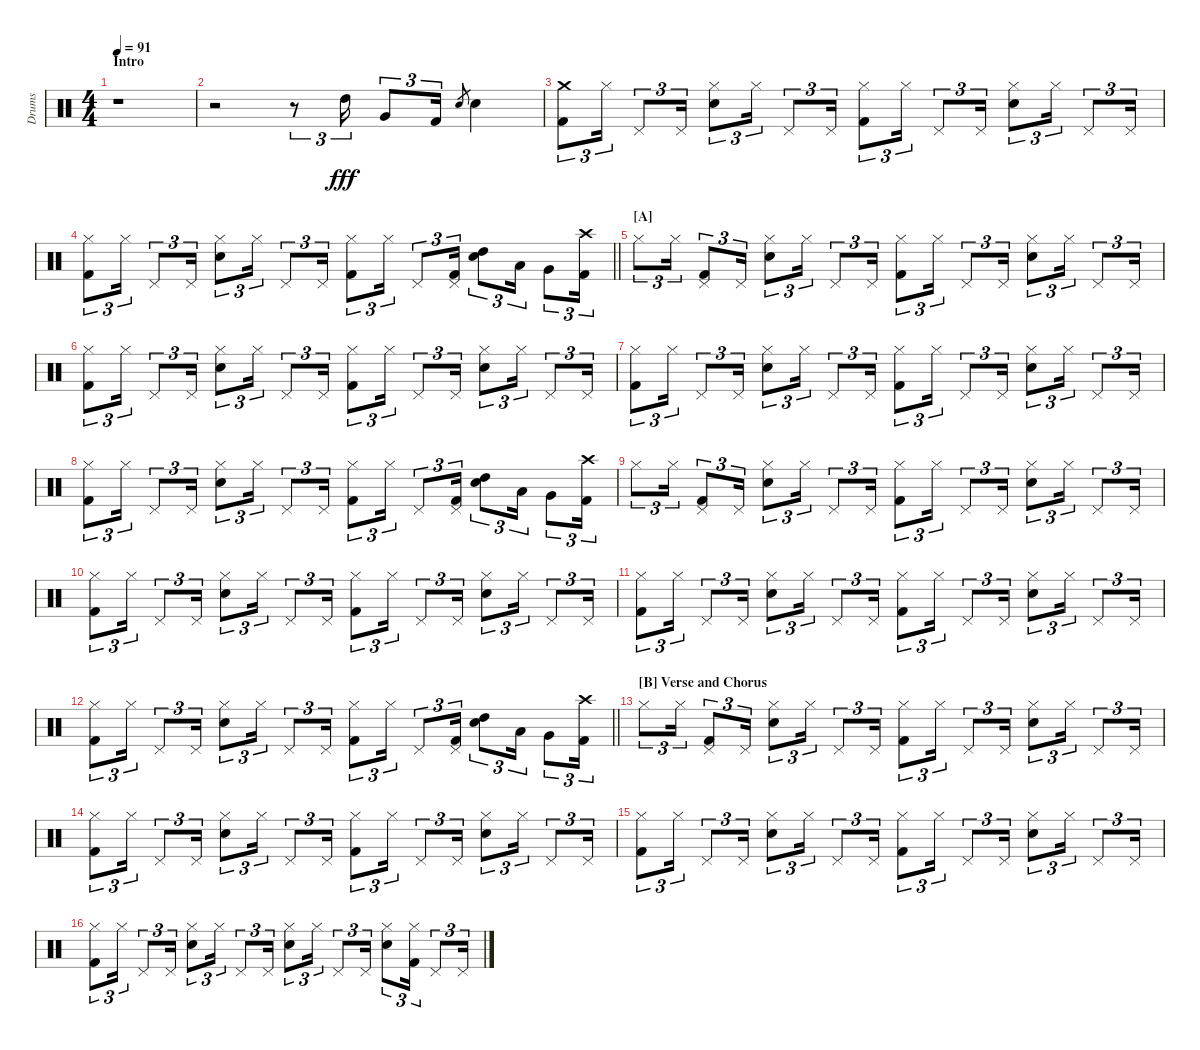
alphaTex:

\track ("Drums" "Drums") {instrument percussion}
\staff {score}
\articulation defaults
\ts (4 4)
\section ("" "Intro")
\tempo 91
\clef neutral
\ks c
r.1{dy fff} |
r.2 r.8{tu (3 2)} "High Tom (hit)".16{tu (3 2)} "Very Low Tom (hit)".8{tu (3 2)} "Kick (hit) 2".16{tu (3 2)} "Electric Snare (hit)".8{gr} "Electric Snare (hit)".4 |
("Crash medium (hit)" "Kick (hit) 2").8{tu (3 2)} "Hi-Hat (closed)".16{tu (3 2)} "Pedal Hi-Hat (hit)".8{tu (3 2)} "Pedal Hi-Hat (hit)".16{tu (3 2)} ("Snare (hit) 2" "Hi-Hat (closed)").8{tu (3 2)} "Hi-Hat (closed)".16{tu (3 2)} "Pedal Hi-Hat (hit)".8{tu (3 2)} "Pedal Hi-Hat (hit)".16{tu (3 2)} ("Kick (hit) 2" "Hi-Hat (closed)").8{tu (3 2)} "Hi-Hat (closed)".16{tu (3 2)} "Pedal Hi-Hat (hit)".8{tu (3 2)} "Pedal Hi-Hat (hit)".16{tu (3 2)} ("Snare (hit) 2" "Hi-Hat (closed)").8{tu (3 2)} "Hi-Hat (closed)".16{tu (3 2)} "Pedal Hi-Hat (hit)".8{tu (3 2)} "Pedal Hi-Hat (hit)".16{tu (3 2)} |
\barLineRight lightlight
("Hi-Hat (closed)" "Kick (hit) 2").8{tu (3 2)} "Hi-Hat (closed)".16{tu (3 2)} "Pedal Hi-Hat (hit)".8{tu (3 2)} "Pedal Hi-Hat (hit)".16{tu (3 2)} ("Snare (hit) 2" "Hi-Hat (closed)").8{tu (3 2)} "Hi-Hat (closed)".16{tu (3 2)} "Pedal Hi-Hat (hit)".8{tu (3 2)} "Pedal Hi-Hat (hit)".16{tu (3 2)} ("Kick (hit) 2" "Hi-Hat (closed)").8{tu (3 2)} "Hi-Hat (closed)".16{tu (3 2)} "Pedal Hi-Hat (hit)".8{tu (3 2)} ("Kick (hit) 2" "Pedal Hi-Hat (hit)").16{tu (3 2)} ("Snare (hit) 2" "High Tom (hit)").8{tu (3 2)} "Low Tom (hit)".16{tu (3 2)} "Very Low Tom (hit)".8{tu (3 2)} ("Crash high (hit)" "Kick (hit) 2").16{tu (3 2)} |
\section ("" "[A]")
"Hi-Hat (closed)".8{tu (3 2)} "Hi-Hat (closed)".16{tu (3 2)} ("Kick (hit) 2" "Pedal Hi-Hat (hit)").8{tu (3 2)} "Pedal Hi-Hat (hit)".16{tu (3 2)} ("Snare (hit) 2" "Hi-Hat (closed)").8{tu (3 2)} "Hi-Hat (closed)".16{tu (3 2)} "Pedal Hi-Hat (hit)".8{tu (3 2)} "Pedal Hi-Hat (hit)".16{tu (3 2)} ("Kick (hit) 2" "Hi-Hat (closed)").8{tu (3 2)} "Hi-Hat (closed)".16{tu (3 2)} "Pedal Hi-Hat (hit)".8{tu (3 2)} "Pedal Hi-Hat (hit)".16{tu (3 2)} ("Snare (hit) 2" "Hi-Hat (closed)").8{tu (3 2)} "Hi-Hat (closed)".16{tu (3 2)} "Pedal Hi-Hat (hit)".8{tu (3 2)} "Pedal Hi-Hat (hit)".16{tu (3 2)} |
("Hi-Hat (closed)" "Kick (hit) 2").8{tu (3 2)} "Hi-Hat (closed)".16{tu (3 2)} "Pedal Hi-Hat (hit)".8{tu (3 2)} "Pedal Hi-Hat (hit)".16{tu (3 2)} ("Snare (hit) 2" "Hi-Hat (closed)").8{tu (3 2)} "Hi-Hat (closed)".16{tu (3 2)} "Pedal Hi-Hat (hit)".8{tu (3 2)} "Pedal Hi-Hat (hit)".16{tu (3 2)} ("Kick (hit) 2" "Hi-Hat (closed)").8{tu (3 2)} "Hi-Hat (closed)".16{tu (3 2)} "Pedal Hi-Hat (hit)".8{tu (3 2)} "Pedal Hi-Hat (hit)".16{tu (3 2)} ("Snare (hit) 2" "Hi-Hat (closed)").8{tu (3 2)} "Hi-Hat (closed)".16{tu (3 2)} "Pedal Hi-Hat (hit)".8{tu (3 2)} "Pedal Hi-Hat (hit)".16{tu (3 2)} |
("Hi-Hat (closed)" "Kick (hit) 2").8{tu (3 2)} "Hi-Hat (closed)".16{tu (3 2)} "Pedal Hi-Hat (hit)".8{tu (3 2)} "Pedal Hi-Hat (hit)".16{tu (3 2)} ("Snare (hit) 2" "Hi-Hat (closed)").8{tu (3 2)} "Hi-Hat (closed)".16{tu (3 2)} "Pedal Hi-Hat (hit)".8{tu (3 2)} "Pedal Hi-Hat (hit)".16{tu (3 2)} ("Kick (hit) 2" "Hi-Hat (closed)").8{tu (3 2)} "Hi-Hat (closed)".16{tu (3 2)} "Pedal Hi-Hat (hit)".8{tu (3 2)} "Pedal Hi-Hat (hit)".16{tu (3 2)} ("Snare (hit) 2" "Hi-Hat (closed)").8{tu (3 2)} "Hi-Hat (closed)".16{tu (3 2)} "Pedal Hi-Hat (hit)".8{tu (3 2)} "Pedal Hi-Hat (hit)".16{tu (3 2)} |
("Hi-Hat (closed)" "Kick (hit) 2").8{tu (3 2)} "Hi-Hat (closed)".16{tu (3 2)} "Pedal Hi-Hat (hit)".8{tu (3 2)} "Pedal Hi-Hat (hit)".16{tu (3 2)} ("Snare (hit) 2" "Hi-Hat (closed)").8{tu (3 2)} "Hi-Hat (closed)".16{tu (3 2)} "Pedal Hi-Hat (hit)".8{tu (3 2)} "Pedal Hi-Hat (hit)".16{tu (3 2)} ("Kick (hit) 2" "Hi-Hat (closed)").8{tu (3 2)} "Hi-Hat (closed)".16{tu (3 2)} "Pedal Hi-Hat (hit)".8{tu (3 2)} ("Kick (hit) 2" "Pedal Hi-Hat (hit)").16{tu (3 2)} ("Snare (hit) 2" "High Tom (hit)").8{tu (3 2)} "Low Tom (hit)".16{tu (3 2)} "Very Low Tom (hit)".8{tu (3 2)} ("Crash high (hit)" "Kick (hit) 2").16{tu (3 2)} |
"Hi-Hat (closed)".8{tu (3 2)} "Hi-Hat (closed)".16{tu (3 2)} ("Kick (hit) 2" "Pedal Hi-Hat (hit)").8{tu (3 2)} "Pedal Hi-Hat (hit)".16{tu (3 2)} ("Snare (hit) 2" "Hi-Hat (closed)").8{tu (3 2)} "Hi-Hat (closed)".16{tu (3 2)} "Pedal Hi-Hat (hit)".8{tu (3 2)} "Pedal Hi-Hat (hit)".16{tu (3 2)} ("Kick (hit) 2" "Hi-Hat (closed)").8{tu (3 2)} "Hi-Hat (closed)".16{tu (3 2)} "Pedal Hi-Hat (hit)".8{tu (3 2)} "Pedal Hi-Hat (hit)".16{tu (3 2)} ("Snare (hit) 2" "Hi-Hat (closed)").8{tu (3 2)} "Hi-Hat (closed)".16{tu (3 2)} "Pedal Hi-Hat (hit)".8{tu (3 2)} "Pedal Hi-Hat (hit)".16{tu (3 2)} |
("Hi-Hat (closed)" "Kick (hit) 2").8{tu (3 2)} "Hi-Hat (closed)".16{tu (3 2)} "Pedal Hi-Hat (hit)".8{tu (3 2)} "Pedal Hi-Hat (hit)".16{tu (3 2)} ("Snare (hit) 2" "Hi-Hat (closed)").8{tu (3 2)} "Hi-Hat (closed)".16{tu (3 2)} "Pedal Hi-Hat (hit)".8{tu (3 2)} "Pedal Hi-Hat (hit)".16{tu (3 2)} ("Kick (hit) 2" "Hi-Hat (closed)").8{tu (3 2)} "Hi-Hat (closed)".16{tu (3 2)} "Pedal Hi-Hat (hit)".8{tu (3 2)} "Pedal Hi-Hat (hit)".16{tu (3 2)} ("Snare (hit) 2" "Hi-Hat (closed)").8{tu (3 2)} "Hi-Hat (closed)".16{tu (3 2)} "Pedal Hi-Hat (hit)".8{tu (3 2)} "Pedal Hi-Hat (hit)".16{tu (3 2)} |
("Hi-Hat (closed)" "Kick (hit) 2").8{tu (3 2)} "Hi-Hat (closed)".16{tu (3 2)} "Pedal Hi-Hat (hit)".8{tu (3 2)} "Pedal Hi-Hat (hit)".16{tu (3 2)} ("Snare (hit) 2" "Hi-Hat (closed)").8{tu (3 2)} "Hi-Hat (closed)".16{tu (3 2)} "Pedal Hi-Hat (hit)".8{tu (3 2)} "Pedal Hi-Hat (hit)".16{tu (3 2)} ("Kick (hit) 2" "Hi-Hat (closed)").8{tu (3 2)} "Hi-Hat (closed)".16{tu (3 2)} "Pedal Hi-Hat (hit)".8{tu (3 2)} "Pedal Hi-Hat (hit)".16{tu (3 2)} ("Snare (hit) 2" "Hi-Hat (closed)").8{tu (3 2)} "Hi-Hat (closed)".16{tu (3 2)} "Pedal Hi-Hat (hit)".8{tu (3 2)} "Pedal Hi-Hat (hit)".16{tu (3 2)} |
\barLineRight lightlight
("Hi-Hat (closed)" "Kick (hit) 2").8{tu (3 2)} "Hi-Hat (closed)".16{tu (3 2)} "Pedal Hi-Hat (hit)".8{tu (3 2)} "Pedal Hi-Hat (hit)".16{tu (3 2)} ("Snare (hit) 2" "Hi-Hat (closed)").8{tu (3 2)} "Hi-Hat (closed)".16{tu (3 2)} "Pedal Hi-Hat (hit)".8{tu (3 2)} "Pedal Hi-Hat (hit)".16{tu (3 2)} ("Kick (hit) 2" "Hi-Hat (closed)").8{tu (3 2)} "Hi-Hat (closed)".16{tu (3 2)} "Pedal Hi-Hat (hit)".8{tu (3 2)} ("Kick (hit) 2" "Pedal Hi-Hat (hit)").16{tu (3 2)} ("Snare (hit) 2" "High Tom (hit)").8{tu (3 2)} "Low Tom (hit)".16{tu (3 2)} "Very Low Tom (hit)".8{tu (3 2)} ("Crash high (hit)" "Kick (hit) 2").16{tu (3 2)} |
\section ("" "[B] Verse and Chorus")
"Hi-Hat (closed)".8{tu (3 2)} "Hi-Hat (closed)".16{tu (3 2)} ("Kick (hit) 2" "Pedal Hi-Hat (hit)").8{tu (3 2)} "Pedal Hi-Hat (hit)".16{tu (3 2)} ("Snare (hit) 2" "Hi-Hat (closed)").8{tu (3 2)} "Hi-Hat (closed)".16{tu (3 2)} "Pedal Hi-Hat (hit)".8{tu (3 2)} "Pedal Hi-Hat (hit)".16{tu (3 2)} ("Kick (hit) 2" "Hi-Hat (closed)").8{tu (3 2)} "Hi-Hat (closed)".16{tu (3 2)} "Pedal Hi-Hat (hit)".8{tu (3 2)} "Pedal Hi-Hat (hit)".16{tu (3 2)} ("Snare (hit) 2" "Hi-Hat (closed)").8{tu (3 2)} "Hi-Hat (closed)".16{tu (3 2)} "Pedal Hi-Hat (hit)".8{tu (3 2)} "Pedal Hi-Hat (hit)".16{tu (3 2)} |
("Hi-Hat (closed)" "Kick (hit) 2").8{tu (3 2)} "Hi-Hat (closed)".16{tu (3 2)} "Pedal Hi-Hat (hit)".8{tu (3 2)} "Pedal Hi-Hat (hit)".16{tu (3 2)} ("Snare (hit) 2" "Hi-Hat (closed)").8{tu (3 2)} "Hi-Hat (closed)".16{tu (3 2)} "Pedal Hi-Hat (hit)".8{tu (3 2)} "Pedal Hi-Hat (hit)".16{tu (3 2)} ("Kick (hit) 2" "Hi-Hat (closed)").8{tu (3 2)} "Hi-Hat (closed)".16{tu (3 2)} "Pedal Hi-Hat (hit)".8{tu (3 2)} "Pedal Hi-Hat (hit)".16{tu (3 2)} ("Snare (hit) 2" "Hi-Hat (closed)").8{tu (3 2)} "Hi-Hat (closed)".16{tu (3 2)} "Pedal Hi-Hat (hit)".8{tu (3 2)} "Pedal Hi-Hat (hit)".16{tu (3 2)} |
("Hi-Hat (closed)" "Kick (hit) 2").8{tu (3 2)} "Hi-Hat (closed)".16{tu (3 2)} "Pedal Hi-Hat (hit)".8{tu (3 2)} "Pedal Hi-Hat (hit)".16{tu (3 2)} ("Snare (hit) 2" "Hi-Hat (closed)").8{tu (3 2)} "Hi-Hat (closed)".16{tu (3 2)} "Pedal Hi-Hat (hit)".8{tu (3 2)} "Pedal Hi-Hat (hit)".16{tu (3 2)} ("Kick (hit) 2" "Hi-Hat (closed)").8{tu (3 2)} "Hi-Hat (closed)".16{tu (3 2)} "Pedal Hi-Hat (hit)".8{tu (3 2)} "Pedal Hi-Hat (hit)".16{tu (3 2)} ("Snare (hit) 2" "Hi-Hat (closed)").8{tu (3 2)} "Hi-Hat (closed)".16{tu (3 2)} "Pedal Hi-Hat (hit)".8{tu (3 2)} "Pedal Hi-Hat (hit)".16{tu (3 2)} |
("Hi-Hat (closed)" "Kick (hit) 2").8{tu (3 2)} "Hi-Hat (closed)".16{tu (3 2)} "Pedal Hi-Hat (hit)".8{tu (3 2)} "Pedal Hi-Hat (hit)".16{tu (3 2)} ("Snare (hit) 2" "Hi-Hat (closed)").8{tu (3 2)} "Hi-Hat (closed)".16{tu (3 2)} "Pedal Hi-Hat (hit)".8{tu (3 2)} "Pedal Hi-Hat (hit)".16{tu (3 2)} ("Hi-Hat (closed)" "Snare (hit) 2").8{tu (3 2)} "Hi-Hat (closed)".16{tu (3 2)} "Pedal Hi-Hat (hit)".8{tu (3 2)} "Pedal Hi-Hat (hit)".16{tu (3 2)} ("Hi-Hat (closed)" "Snare (hit) 2").8{tu (3 2)} ("Hi-Hat (closed)" "Kick (hit) 2").16{tu (3 2)} "Pedal Hi-Hat (hit)".8{tu (3 2)} "Pedal Hi-Hat (hit)".16{tu (3 2)}
